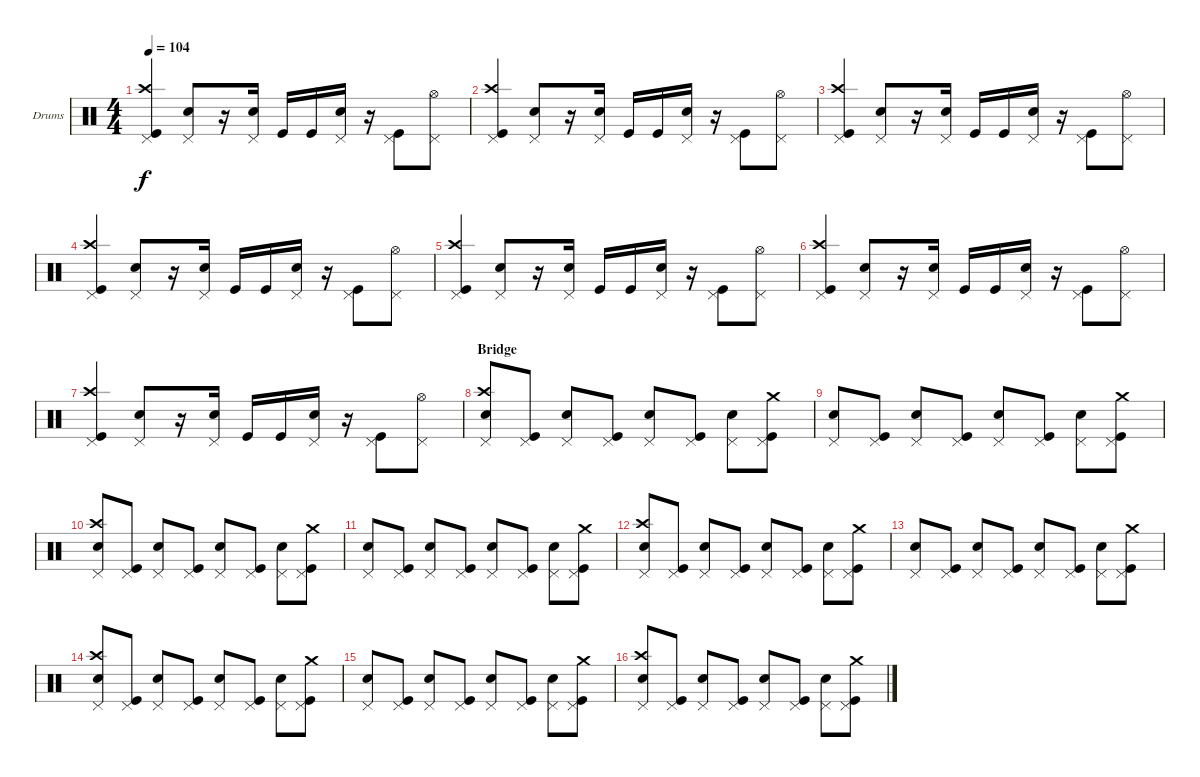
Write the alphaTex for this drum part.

\defaultSystemsLayout 4
\bracketExtendMode groupsimilarinstruments
\firstSystemTrackNameOrientation horizontal
\otherSystemsTrackNameOrientation horizontal
\track ("Drumkit" "Drums") {instrument percussion}
\staff {score}
\articulation defaults
\ts (4 4)
\tempo 104
\clef neutral
\ks c
("Pedal Hi-Hat (hit)" "Crash high (hit)" "Kick (hit)").4{dy f} ("Pedal Hi-Hat (hit)" "Snare (hit) 2").8 r.16 ("Pedal Hi-Hat (hit)" "Snare (hit) 2").16 "Kick (hit)".16 "Kick (hit)".16 ("Pedal Hi-Hat (hit)" "Snare (hit) 2").16 r.16 ("Pedal Hi-Hat (hit)" "Kick (hit)").8 ("Pedal Hi-Hat (hit)" "Hi-Hat (open)").8 |
("Pedal Hi-Hat (hit)" "Crash high (hit)" "Kick (hit)").4 ("Pedal Hi-Hat (hit)" "Snare (hit) 2").8 r.16 ("Pedal Hi-Hat (hit)" "Snare (hit) 2").16 "Kick (hit)".16 "Kick (hit)".16 ("Pedal Hi-Hat (hit)" "Snare (hit) 2").16 r.16 ("Pedal Hi-Hat (hit)" "Kick (hit)").8 ("Pedal Hi-Hat (hit)" "Hi-Hat (open)").8 |
("Pedal Hi-Hat (hit)" "Crash high (hit)" "Kick (hit)").4 ("Pedal Hi-Hat (hit)" "Snare (hit) 2").8 r.16 ("Pedal Hi-Hat (hit)" "Snare (hit) 2").16 "Kick (hit)".16 "Kick (hit)".16 ("Pedal Hi-Hat (hit)" "Snare (hit) 2").16 r.16 ("Pedal Hi-Hat (hit)" "Kick (hit)").8 ("Pedal Hi-Hat (hit)" "Hi-Hat (open)").8 |
("Pedal Hi-Hat (hit)" "Crash high (hit)" "Kick (hit)").4 ("Pedal Hi-Hat (hit)" "Snare (hit) 2").8 r.16 ("Pedal Hi-Hat (hit)" "Snare (hit) 2").16 "Kick (hit)".16 "Kick (hit)".16 ("Pedal Hi-Hat (hit)" "Snare (hit) 2").16 r.16 ("Pedal Hi-Hat (hit)" "Kick (hit)").8 ("Pedal Hi-Hat (hit)" "Hi-Hat (open)").8 |
("Pedal Hi-Hat (hit)" "Crash high (hit)" "Kick (hit)").4 ("Pedal Hi-Hat (hit)" "Snare (hit) 2").8 r.16 ("Pedal Hi-Hat (hit)" "Snare (hit) 2").16 "Kick (hit)".16 "Kick (hit)".16 ("Pedal Hi-Hat (hit)" "Snare (hit) 2").16 r.16 ("Pedal Hi-Hat (hit)" "Kick (hit)").8 ("Pedal Hi-Hat (hit)" "Hi-Hat (open)").8 |
("Pedal Hi-Hat (hit)" "Crash high (hit)" "Kick (hit)").4 ("Pedal Hi-Hat (hit)" "Snare (hit) 2").8 r.16 ("Pedal Hi-Hat (hit)" "Snare (hit) 2").16 "Kick (hit)".16 "Kick (hit)".16 ("Pedal Hi-Hat (hit)" "Snare (hit) 2").16 r.16 ("Pedal Hi-Hat (hit)" "Kick (hit)").8 ("Pedal Hi-Hat (hit)" "Hi-Hat (open)").8 |
("Pedal Hi-Hat (hit)" "Crash high (hit)" "Kick (hit)").4 ("Pedal Hi-Hat (hit)" "Snare (hit) 2").8 r.16 ("Pedal Hi-Hat (hit)" "Snare (hit) 2").16 "Kick (hit)".16 "Kick (hit)".16 ("Pedal Hi-Hat (hit)" "Snare (hit) 2").16 r.16 ("Pedal Hi-Hat (hit)" "Kick (hit)").8 ("Pedal Hi-Hat (hit)" "Hi-Hat (open)").8 |
\section ("" "Bridge")
("Pedal Hi-Hat (hit)" "Snare (hit) 2" "Crash high (hit)").8 ("Pedal Hi-Hat (hit)" "Kick (hit)").8 ("Pedal Hi-Hat (hit)" "Snare (hit) 2").8 ("Pedal Hi-Hat (hit)" "Kick (hit)").8 ("Pedal Hi-Hat (hit)" "Snare (hit) 2").8 ("Pedal Hi-Hat (hit)" "Kick (hit)").8 ("Pedal Hi-Hat (hit)" "Snare (hit) 2").8 ("Pedal Hi-Hat (hit)" "Kick (hit)" "Crash medium (hit)").8 |
("Pedal Hi-Hat (hit)" "Snare (hit) 2").8 ("Pedal Hi-Hat (hit)" "Kick (hit)").8 ("Pedal Hi-Hat (hit)" "Snare (hit) 2").8 ("Pedal Hi-Hat (hit)" "Kick (hit)").8 ("Pedal Hi-Hat (hit)" "Snare (hit) 2").8 ("Pedal Hi-Hat (hit)" "Kick (hit)").8 ("Pedal Hi-Hat (hit)" "Snare (hit) 2").8 ("Pedal Hi-Hat (hit)" "Kick (hit)" "Crash medium (hit)").8 |
("Pedal Hi-Hat (hit)" "Snare (hit) 2" "Crash high (hit)").8 ("Pedal Hi-Hat (hit)" "Kick (hit)").8 ("Pedal Hi-Hat (hit)" "Snare (hit) 2").8 ("Pedal Hi-Hat (hit)" "Kick (hit)").8 ("Pedal Hi-Hat (hit)" "Snare (hit) 2").8 ("Pedal Hi-Hat (hit)" "Kick (hit)").8 ("Pedal Hi-Hat (hit)" "Snare (hit) 2").8 ("Pedal Hi-Hat (hit)" "Kick (hit)" "Crash medium (hit)").8 |
("Pedal Hi-Hat (hit)" "Snare (hit) 2").8 ("Pedal Hi-Hat (hit)" "Kick (hit)").8 ("Pedal Hi-Hat (hit)" "Snare (hit) 2").8 ("Pedal Hi-Hat (hit)" "Kick (hit)").8 ("Pedal Hi-Hat (hit)" "Snare (hit) 2").8 ("Pedal Hi-Hat (hit)" "Kick (hit)").8 ("Pedal Hi-Hat (hit)" "Snare (hit) 2").8 ("Pedal Hi-Hat (hit)" "Kick (hit)" "Crash medium (hit)").8 |
("Pedal Hi-Hat (hit)" "Snare (hit) 2" "Crash high (hit)").8 ("Pedal Hi-Hat (hit)" "Kick (hit)").8 ("Pedal Hi-Hat (hit)" "Snare (hit) 2").8 ("Pedal Hi-Hat (hit)" "Kick (hit)").8 ("Pedal Hi-Hat (hit)" "Snare (hit) 2").8 ("Pedal Hi-Hat (hit)" "Kick (hit)").8 ("Pedal Hi-Hat (hit)" "Snare (hit) 2").8 ("Pedal Hi-Hat (hit)" "Kick (hit)" "Crash medium (hit)").8 |
("Pedal Hi-Hat (hit)" "Snare (hit) 2").8 ("Pedal Hi-Hat (hit)" "Kick (hit)").8 ("Pedal Hi-Hat (hit)" "Snare (hit) 2").8 ("Pedal Hi-Hat (hit)" "Kick (hit)").8 ("Pedal Hi-Hat (hit)" "Snare (hit) 2").8 ("Pedal Hi-Hat (hit)" "Kick (hit)").8 ("Pedal Hi-Hat (hit)" "Snare (hit) 2").8 ("Pedal Hi-Hat (hit)" "Kick (hit)" "Crash medium (hit)").8 |
("Pedal Hi-Hat (hit)" "Snare (hit) 2" "Crash high (hit)").8 ("Pedal Hi-Hat (hit)" "Kick (hit)").8 ("Pedal Hi-Hat (hit)" "Snare (hit) 2").8 ("Pedal Hi-Hat (hit)" "Kick (hit)").8 ("Pedal Hi-Hat (hit)" "Snare (hit) 2").8 ("Pedal Hi-Hat (hit)" "Kick (hit)").8 ("Pedal Hi-Hat (hit)" "Snare (hit) 2").8 ("Pedal Hi-Hat (hit)" "Kick (hit)" "Crash medium (hit)").8 |
("Pedal Hi-Hat (hit)" "Snare (hit) 2").8 ("Pedal Hi-Hat (hit)" "Kick (hit)").8 ("Pedal Hi-Hat (hit)" "Snare (hit) 2").8 ("Pedal Hi-Hat (hit)" "Kick (hit)").8 ("Pedal Hi-Hat (hit)" "Snare (hit) 2").8 ("Pedal Hi-Hat (hit)" "Kick (hit)").8 ("Pedal Hi-Hat (hit)" "Snare (hit) 2").8 ("Pedal Hi-Hat (hit)" "Kick (hit)" "Crash medium (hit)").8 |
("Pedal Hi-Hat (hit)" "Snare (hit) 2" "Crash high (hit)").8 ("Pedal Hi-Hat (hit)" "Kick (hit)").8 ("Pedal Hi-Hat (hit)" "Snare (hit) 2").8 ("Pedal Hi-Hat (hit)" "Kick (hit)").8 ("Pedal Hi-Hat (hit)" "Snare (hit) 2").8 ("Pedal Hi-Hat (hit)" "Kick (hit)").8 ("Pedal Hi-Hat (hit)" "Snare (hit) 2").8 ("Pedal Hi-Hat (hit)" "Kick (hit)" "Crash medium (hit)").8
